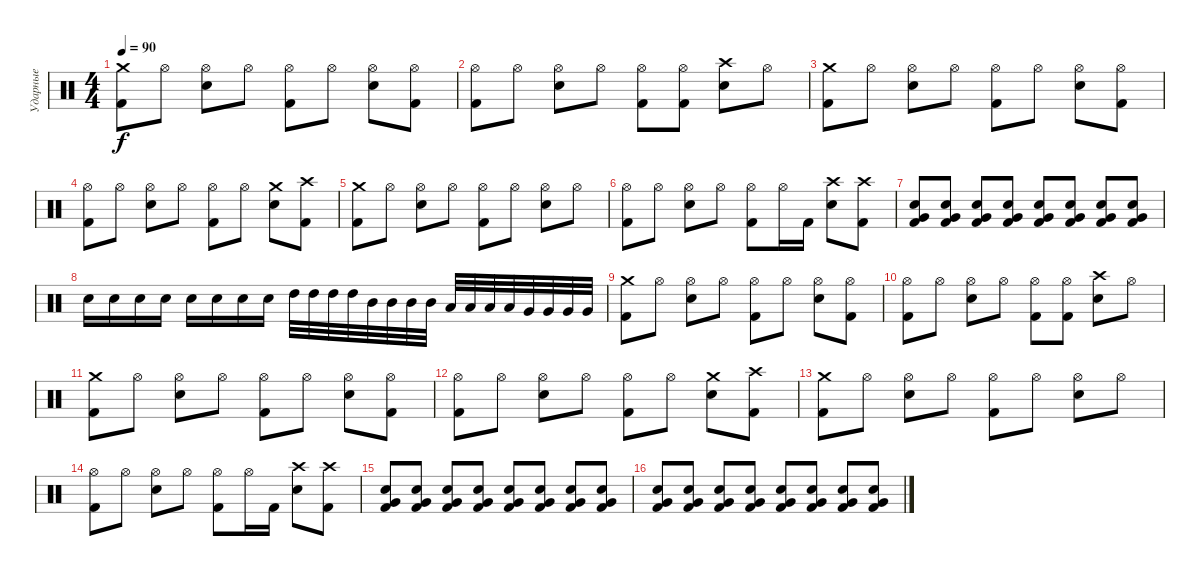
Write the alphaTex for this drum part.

\track ("Ударные" "Ударные") {instrument percussion}
\staff {score}
\articulation defaults
\ts (4 4)
\tempo 90
\clef neutral
\ks c
("Crash medium (hit)" "Kick (hit) 2").8{dy f} "Hi-Hat (open)".8 ("Hi-Hat (open)" "Electric Snare (hit)").8 "Hi-Hat (open)".8 ("Hi-Hat (open)" "Kick (hit) 2").8 "Hi-Hat (open)".8 ("Hi-Hat (open)" "Electric Snare (hit)").8 ("Hi-Hat (open)" "Kick (hit) 2").8 |
("Hi-Hat (open)" "Kick (hit) 2").8 "Hi-Hat (open)".8 ("Hi-Hat (open)" "Electric Snare (hit)").8 "Hi-Hat (open)".8 ("Hi-Hat (open)" "Kick (hit) 2").8 ("Hi-Hat (open)" "Kick (hit) 2").8 ("Crash high (hit)" "Electric Snare (hit)").8 "Hi-Hat (open)".8 |
("Crash medium (hit)" "Kick (hit) 2").8 "Hi-Hat (open)".8 ("Hi-Hat (open)" "Electric Snare (hit)").8 "Hi-Hat (open)".8 ("Hi-Hat (open)" "Kick (hit) 2").8 "Hi-Hat (open)".8 ("Hi-Hat (open)" "Electric Snare (hit)").8 ("Hi-Hat (open)" "Kick (hit) 2").8 |
("Hi-Hat (open)" "Kick (hit) 2").8 "Hi-Hat (open)".8 ("Hi-Hat (open)" "Electric Snare (hit)").8 "Hi-Hat (open)".8 ("Hi-Hat (open)" "Kick (hit) 2").8 "Hi-Hat (open)".8 ("Crash medium (hit)" "Electric Snare (hit)").8 ("Crash high (hit)" "Kick (hit) 2").8 |
("Crash medium (hit)" "Kick (hit) 2").8 "Hi-Hat (open)".8 ("Hi-Hat (open)" "Electric Snare (hit)").8 "Hi-Hat (open)".8 ("Hi-Hat (open)" "Kick (hit) 2").8 "Hi-Hat (open)".8 ("Hi-Hat (open)" "Electric Snare (hit)").8 "Hi-Hat (open)".8 |
("Hi-Hat (open)" "Kick (hit) 2").8 "Hi-Hat (open)".8 ("Hi-Hat (open)" "Electric Snare (hit)").8 "Hi-Hat (open)".8 ("Hi-Hat (open)" "Kick (hit) 2").8 "Hi-Hat (open)".16 "Kick (hit) 2".16 ("Crash high (hit)" "Electric Snare (hit)").8 ("Crash high (hit)" "Kick (hit) 2").8 |
("Electric Snare (hit)" "Very Low Tom (hit)" "Kick (hit) 2").8 ("Electric Snare (hit)" "Very Low Tom (hit)" "Kick (hit) 2").8 ("Electric Snare (hit)" "Very Low Tom (hit)" "Kick (hit) 2").8 ("Electric Snare (hit)" "Very Low Tom (hit)" "Kick (hit) 2").8 ("Electric Snare (hit)" "Very Low Tom (hit)" "Kick (hit) 2").8 ("Electric Snare (hit)" "Very Low Tom (hit)" "Kick (hit) 2").8 ("Electric Snare (hit)" "Very Low Tom (hit)" "Kick (hit) 2").8 ("Electric Snare (hit)" "Very Low Tom (hit)" "Kick (hit) 2").8 |
"Electric Snare (hit)".16 "Electric Snare (hit)".16 "Electric Snare (hit)".16 "Electric Snare (hit)".16 "Electric Snare (hit)".16 "Electric Snare (hit)".16 "Electric Snare (hit)".16 "Electric Snare (hit)".16 "High Tom (hit)".32 "High Tom (hit)".32 "High Tom (hit)".32 "High Tom (hit)".32 "Mid Tom (hit)".32 "Mid Tom (hit)".32 "Mid Tom (hit)".32 "Mid Tom (hit)".32 "Low Tom (hit)".32 "Low Tom (hit)".32 "Low Tom (hit)".32 "Low Tom (hit)".32 "Very Low Tom (hit)".32 "Very Low Tom (hit)".32 "Very Low Tom (hit)".32 "Very Low Tom (hit)".32 |
("Crash medium (hit)" "Kick (hit) 2").8 "Hi-Hat (open)".8 ("Hi-Hat (open)" "Electric Snare (hit)").8 "Hi-Hat (open)".8 ("Hi-Hat (open)" "Kick (hit) 2").8 "Hi-Hat (open)".8 ("Hi-Hat (open)" "Electric Snare (hit)").8 ("Hi-Hat (open)" "Kick (hit) 2").8 |
("Hi-Hat (open)" "Kick (hit) 2").8 "Hi-Hat (open)".8 ("Hi-Hat (open)" "Electric Snare (hit)").8 "Hi-Hat (open)".8 ("Hi-Hat (open)" "Kick (hit) 2").8 ("Hi-Hat (open)" "Kick (hit) 2").8 ("Crash high (hit)" "Electric Snare (hit)").8 "Hi-Hat (open)".8 |
("Crash medium (hit)" "Kick (hit) 2").8 "Hi-Hat (open)".8 ("Hi-Hat (open)" "Electric Snare (hit)").8 "Hi-Hat (open)".8 ("Hi-Hat (open)" "Kick (hit) 2").8 "Hi-Hat (open)".8 ("Hi-Hat (open)" "Electric Snare (hit)").8 ("Hi-Hat (open)" "Kick (hit) 2").8 |
("Hi-Hat (open)" "Kick (hit) 2").8 "Hi-Hat (open)".8 ("Hi-Hat (open)" "Electric Snare (hit)").8 "Hi-Hat (open)".8 ("Hi-Hat (open)" "Kick (hit) 2").8 "Hi-Hat (open)".8 ("Crash medium (hit)" "Electric Snare (hit)").8 ("Crash high (hit)" "Kick (hit) 2").8 |
("Crash medium (hit)" "Kick (hit) 2").8 "Hi-Hat (open)".8 ("Hi-Hat (open)" "Electric Snare (hit)").8 "Hi-Hat (open)".8 ("Hi-Hat (open)" "Kick (hit) 2").8 "Hi-Hat (open)".8 ("Hi-Hat (open)" "Electric Snare (hit)").8 "Hi-Hat (open)".8 |
("Hi-Hat (open)" "Kick (hit) 2").8 "Hi-Hat (open)".8 ("Hi-Hat (open)" "Electric Snare (hit)").8 "Hi-Hat (open)".8 ("Hi-Hat (open)" "Kick (hit) 2").8 "Hi-Hat (open)".16 "Kick (hit) 2".16 ("Crash high (hit)" "Electric Snare (hit)").8 ("Crash high (hit)" "Kick (hit) 2").8 |
("Electric Snare (hit)" "Very Low Tom (hit)" "Kick (hit) 2").8 ("Electric Snare (hit)" "Very Low Tom (hit)" "Kick (hit) 2").8 ("Electric Snare (hit)" "Very Low Tom (hit)" "Kick (hit) 2").8 ("Electric Snare (hit)" "Very Low Tom (hit)" "Kick (hit) 2").8 ("Electric Snare (hit)" "Very Low Tom (hit)" "Kick (hit) 2").8 ("Electric Snare (hit)" "Very Low Tom (hit)" "Kick (hit) 2").8 ("Electric Snare (hit)" "Very Low Tom (hit)" "Kick (hit) 2").8 ("Electric Snare (hit)" "Very Low Tom (hit)" "Kick (hit) 2").8 |
("Electric Snare (hit)" "Very Low Tom (hit)" "Kick (hit) 2").8 ("Electric Snare (hit)" "Very Low Tom (hit)" "Kick (hit) 2").8 ("Electric Snare (hit)" "Very Low Tom (hit)" "Kick (hit) 2").8 ("Electric Snare (hit)" "Very Low Tom (hit)" "Kick (hit) 2").8 ("Electric Snare (hit)" "Very Low Tom (hit)" "Kick (hit) 2").8 ("Electric Snare (hit)" "Very Low Tom (hit)" "Kick (hit) 2").8 ("Electric Snare (hit)" "Very Low Tom (hit)" "Kick (hit) 2").8 ("Electric Snare (hit)" "Very Low Tom (hit)" "Kick (hit) 2").8
